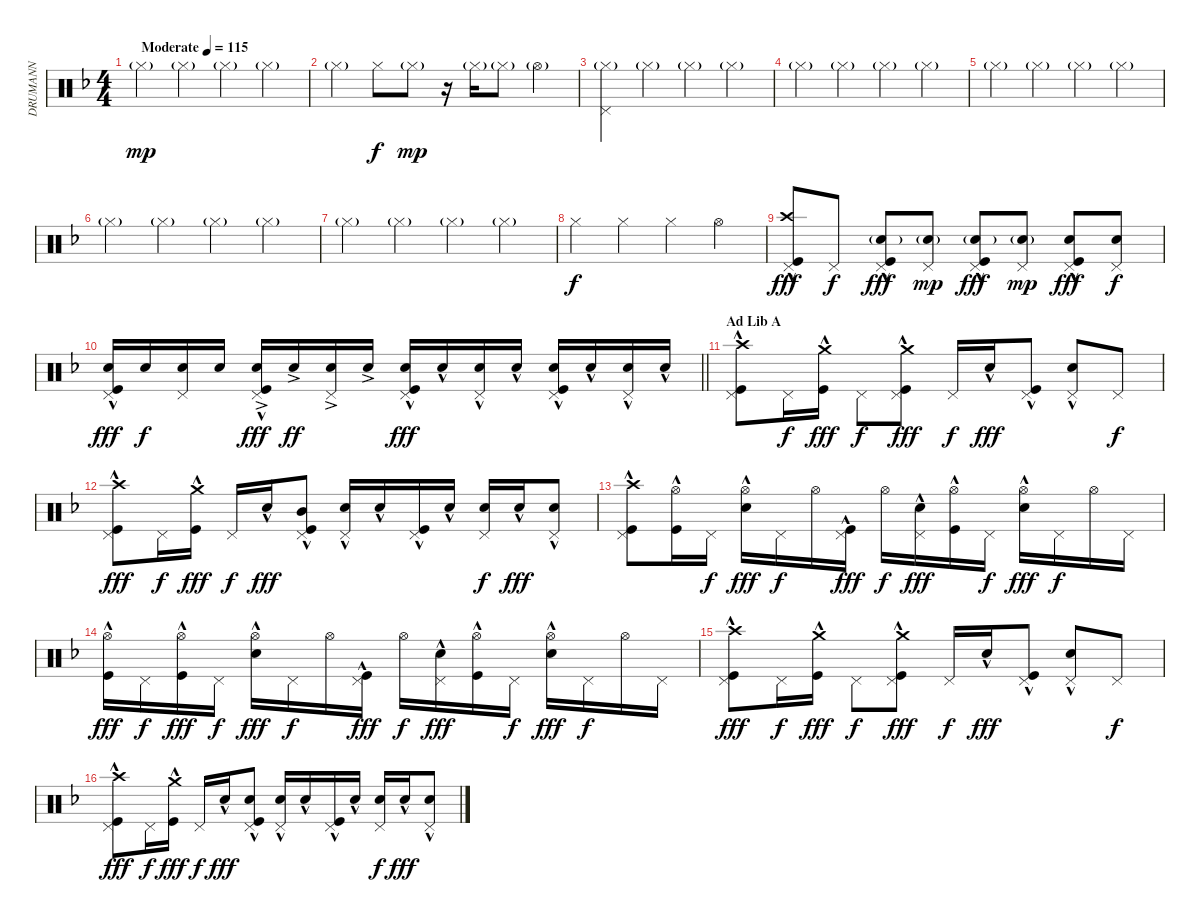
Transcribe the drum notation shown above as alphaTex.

\track ("DRUMANN" "DRUMANN") {instrument percussion}
\staff {score}
\articulation defaults
\ts (4 4)
\tempo (115 "Moderate")
\clef neutral
\ks f "Hi-Hat (closed)"{g}.4{dy mp} "Hi-Hat (closed)"{g}.4 "Hi-Hat (closed)"{g}.4 "Hi-Hat (closed)"{g}.4
|
"Hi-Hat (closed)"{g}.4 "Hi-Hat (closed)".8{dy f} "Hi-Hat (closed)"{g}.8{dy mp} r.16 "Hi-Hat (closed)"{g}.16 "Hi-Hat (closed)"{g}.8 "Hi-Hat (open)"{g}.4 |
("Hi-Hat (closed)"{g} "Pedal Hi-Hat (hit)").4 "Hi-Hat (closed)"{g}.4 "Hi-Hat (closed)"{g}.4 "Hi-Hat (closed)"{g}.4 |
"Hi-Hat (closed)"{g}.4 "Hi-Hat (closed)"{g}.4 "Hi-Hat (closed)"{g}.4 "Hi-Hat (closed)"{g}.4 |
"Hi-Hat (closed)"{g}.4 "Hi-Hat (closed)"{g}.4 "Hi-Hat (closed)"{g}.4 "Hi-Hat (closed)"{g}.4 |
"Hi-Hat (closed)"{g}.4 "Hi-Hat (closed)"{g}.4 "Hi-Hat (closed)"{g}.4 "Hi-Hat (closed)"{g}.4 |
"Hi-Hat (closed)"{g}.4 "Hi-Hat (closed)"{g}.4 "Hi-Hat (closed)"{g}.4 "Hi-Hat (closed)"{g}.4 |
"Hi-Hat (closed)".4{dy f} "Hi-Hat (closed)".4 "Hi-Hat (closed)".4 "Hi-Hat (open)".4 |
("Crash high (hit)"{hac} "Pedal Hi-Hat (hit)" "Kick (hit)"{hac}).8{dy fff} "Pedal Hi-Hat (hit)".8{dy f} ("Snare (hit) 2"{g} "Pedal Hi-Hat (hit)" "Kick (hit)"{hac}).8{dy fff} ("Snare (hit) 2"{g} "Pedal Hi-Hat (hit)").8{dy mp} ("Snare (hit) 2"{g} "Pedal Hi-Hat (hit)" "Kick (hit)"{hac}).8{dy fff} ("Snare (hit) 2"{g} "Pedal Hi-Hat (hit)").8{dy mp} ("Snare (hit) 2" "Pedal Hi-Hat (hit)" "Kick (hit)"{hac}).8{dy fff} ("Snare (hit) 2" "Pedal Hi-Hat (hit)").8{dy f} |
\barLineRight lightlight
("Snare (hit) 2" "Pedal Hi-Hat (hit)" "Kick (hit)"{hac}).16{dy fff} "Snare (hit) 2".16{dy f} ("Snare (hit) 2" "Pedal Hi-Hat (hit)").16 "Snare (hit) 2".16 ("Snare (hit) 2"{ac} "Pedal Hi-Hat (hit)" "Kick (hit)"{hac}).16{dy fff} "Snare (hit) 2"{ac}.16{dy ff} ("Snare (hit) 2"{ac} "Pedal Hi-Hat (hit)").16 "Snare (hit) 2"{ac}.16 ("Snare (hit) 2"{hac} "Pedal Hi-Hat (hit)" "Kick (hit)"{hac}).16{dy fff} "Snare (hit) 2"{hac}.16 ("Snare (hit) 2"{hac} "Pedal Hi-Hat (hit)").16 "Snare (hit) 2"{hac}.16 ("Snare (hit) 2"{hac} "Pedal Hi-Hat (hit)" "Kick (hit)"{hac}).16 "Snare (hit) 2"{hac}.16 ("Snare (hit) 2"{hac} "Pedal Hi-Hat (hit)").16 "Snare (hit) 2"{hac}.16 |
\section ("" "Ad Lib A")
("Crash high (hit)"{hac} "Pedal Hi-Hat (hit)" "Kick (hit)"{hac}).8 "Pedal Hi-Hat (hit)".16{dy f} ("Crash medium (hit)"{hac} "Kick (hit)"{hac}).16{dy fff} "Pedal Hi-Hat (hit)".8{dy f} ("Crash medium (hit)"{hac} "Pedal Hi-Hat (hit)" "Kick (hit)"{hac}).8{dy fff} "Pedal Hi-Hat (hit)".16{dy f} "Snare (hit) 2"{hac}.16{dy fff} ("Pedal Hi-Hat (hit)" "Kick (hit)"{hac}).8 ("Snare (hit) 2"{hac} "Pedal Hi-Hat (hit)").8 "Pedal Hi-Hat (hit)".8{dy f} |
("Crash high (hit)"{hac} "Pedal Hi-Hat (hit)" "Kick (hit)"{hac}).8{dy fff} "Pedal Hi-Hat (hit)".16{dy f} ("Crash medium (hit)"{hac} "Kick (hit)"{hac}).16{dy fff} "Pedal Hi-Hat (hit)".16{dy f} "Snare (hit) 2"{hac}.16{dy fff} ("Mid Tom (hit)" "Pedal Hi-Hat (hit)" "Kick (hit)"{hac}).8 ("Snare (hit) 2"{hac} "Pedal Hi-Hat (hit)").16 "Snare (hit) 2"{hac}.16 ("Pedal Hi-Hat (hit)" "Kick (hit)"{hac}).16 "Snare (hit) 2"{hac}.16 ("Snare (hit) 2" "Pedal Hi-Hat (hit)").16{dy f} "Snare (hit) 2"{hac}.16{dy fff} ("Snare (hit) 2"{hac} "Pedal Hi-Hat (hit)").8 |
("Crash high (hit)"{hac} "Pedal Hi-Hat (hit)" "Kick (hit)"{hac}).8 ("Hi-Hat (open)" "Kick (hit)"{hac}).16 "Pedal Hi-Hat (hit)".16{dy f} ("Hi-Hat (open)" "Snare (hit) 2"{hac}).16{dy fff} "Pedal Hi-Hat (hit)".16{dy f} "Hi-Hat (open)".16 ("Pedal Hi-Hat (hit)" "Kick (hit)"{hac}).16{dy fff} "Hi-Hat (open)".16{dy f} ("Snare (hit) 2"{hac} "Pedal Hi-Hat (hit)").16{dy fff} ("Hi-Hat (open)" "Kick (hit)"{hac}).16 "Pedal Hi-Hat (hit)".16{dy f} ("Hi-Hat (open)" "Snare (hit) 2"{hac}).16{dy fff} "Pedal Hi-Hat (hit)".16{dy f} "Hi-Hat (open)".16 "Pedal Hi-Hat (hit)".16 |
("Hi-Hat (open)" "Kick (hit)"{hac}).16{dy fff} "Pedal Hi-Hat (hit)".16{dy f} ("Hi-Hat (open)" "Kick (hit)"{hac}).16{dy fff} "Pedal Hi-Hat (hit)".16{dy f} ("Hi-Hat (open)" "Snare (hit) 2"{hac}).16{dy fff} "Pedal Hi-Hat (hit)".16{dy f} "Hi-Hat (open)".16 ("Pedal Hi-Hat (hit)" "Kick (hit)"{hac}).16{dy fff} "Hi-Hat (open)".16{dy f} ("Snare (hit) 2"{hac} "Pedal Hi-Hat (hit)").16{dy fff} ("Hi-Hat (open)" "Kick (hit)"{hac}).16 "Pedal Hi-Hat (hit)".16{dy f} ("Hi-Hat (open)" "Snare (hit) 2"{hac}).16{dy fff} "Pedal Hi-Hat (hit)".16{dy f} "Hi-Hat (open)".16 "Pedal Hi-Hat (hit)".16 |
("Crash high (hit)"{hac} "Pedal Hi-Hat (hit)" "Kick (hit)"{hac}).8{dy fff} "Pedal Hi-Hat (hit)".16{dy f} ("Crash medium (hit)"{hac} "Kick (hit)"{hac}).16{dy fff} "Pedal Hi-Hat (hit)".8{dy f} ("Crash medium (hit)"{hac} "Pedal Hi-Hat (hit)" "Kick (hit)"{hac}).8{dy fff} "Pedal Hi-Hat (hit)".16{dy f} "Snare (hit) 2"{hac}.16{dy fff} ("Pedal Hi-Hat (hit)" "Kick (hit)"{hac}).8 ("Snare (hit) 2"{hac} "Pedal Hi-Hat (hit)").8 "Pedal Hi-Hat (hit)".8{dy f} |
("Crash high (hit)"{hac} "Pedal Hi-Hat (hit)" "Kick (hit)"{hac}).8{dy fff} "Pedal Hi-Hat (hit)".16{dy f} ("Crash medium (hit)"{hac} "Kick (hit)"{hac}).16{dy fff} "Pedal Hi-Hat (hit)".16{dy f} "Snare (hit) 2"{hac}.16{dy fff} ("Snare (hit) 2"{hac} "Pedal Hi-Hat (hit)" "Kick (hit)"{hac}).8 ("Snare (hit) 2"{hac} "Pedal Hi-Hat (hit)").16 "Snare (hit) 2"{hac}.16 ("Pedal Hi-Hat (hit)" "Kick (hit)"{hac}).16 "Snare (hit) 2"{hac}.16 ("Snare (hit) 2" "Pedal Hi-Hat (hit)").16{dy f} "Snare (hit) 2"{hac}.16{dy fff} ("Snare (hit) 2"{hac} "Pedal Hi-Hat (hit)").8
